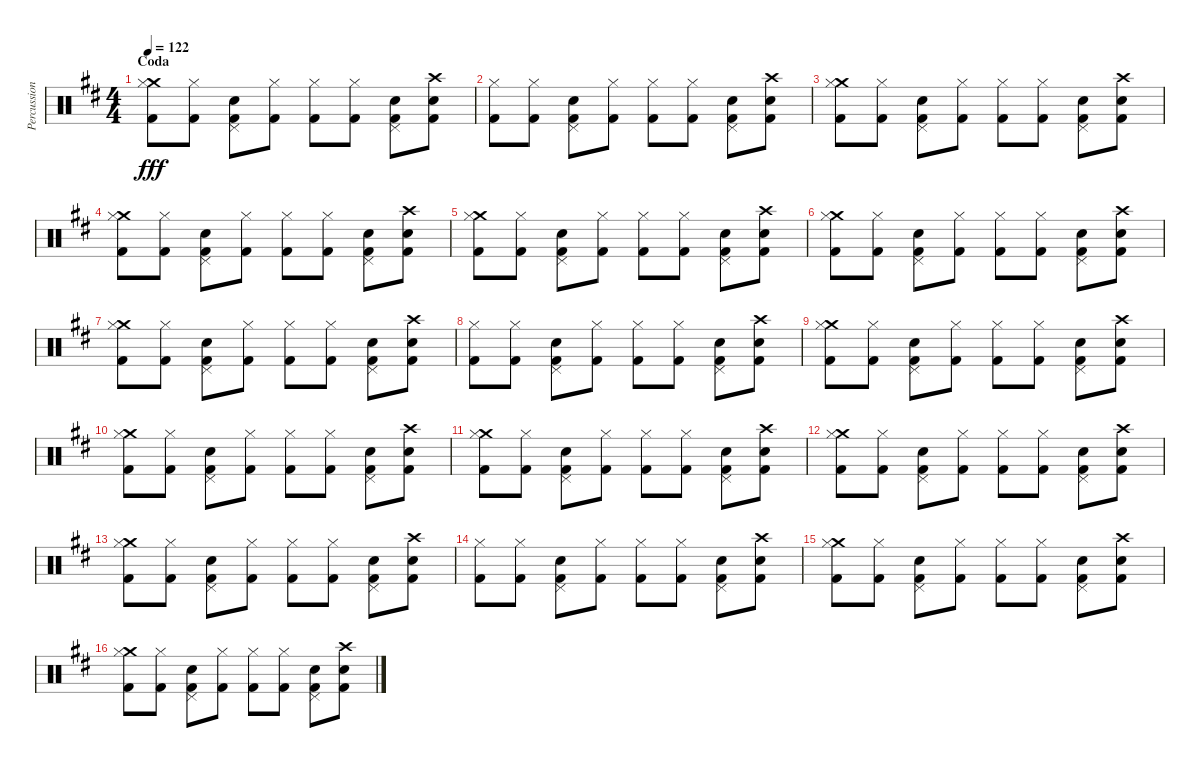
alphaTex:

\track ("Percussion: Boz Burrell" "Percussion") {instrument percussion}
\staff {score}
\articulation defaults
\ts (4 4)
\section ("" "Coda")
\tempo 122
\clef neutral
\ks d
("Crash medium (hit)" "Hi-Hat (closed)" "Kick (hit) 2").8{dy fff} ("Hi-Hat (closed)" "Kick (hit) 2").8 ("Pedal Hi-Hat (hit)" "Snare (hit) 2" "Kick (hit) 2").8 ("Hi-Hat (closed)" "Kick (hit) 2").8 ("Hi-Hat (closed)" "Kick (hit) 2").8 ("Hi-Hat (closed)" "Kick (hit) 2").8 ("Pedal Hi-Hat (hit)" "Snare (hit) 2" "Kick (hit) 2").8 ("Crash high (hit)" "Snare (hit) 2" "Kick (hit) 2").8 |
("Hi-Hat (closed)" "Kick (hit) 2").8 ("Hi-Hat (closed)" "Kick (hit) 2").8 ("Pedal Hi-Hat (hit)" "Snare (hit) 2" "Kick (hit) 2").8 ("Hi-Hat (closed)" "Kick (hit) 2").8 ("Hi-Hat (closed)" "Kick (hit) 2").8 ("Hi-Hat (closed)" "Kick (hit) 2").8 ("Pedal Hi-Hat (hit)" "Snare (hit) 2" "Kick (hit) 2").8 ("Crash high (hit)" "Snare (hit) 2" "Kick (hit) 2").8 |
("Crash medium (hit)" "Hi-Hat (closed)" "Kick (hit) 2").8 ("Hi-Hat (closed)" "Kick (hit) 2").8 ("Pedal Hi-Hat (hit)" "Snare (hit) 2" "Kick (hit) 2").8 ("Hi-Hat (closed)" "Kick (hit) 2").8 ("Hi-Hat (closed)" "Kick (hit) 2").8 ("Hi-Hat (closed)" "Kick (hit) 2").8 ("Pedal Hi-Hat (hit)" "Snare (hit) 2" "Kick (hit) 2").8 ("Crash high (hit)" "Snare (hit) 2" "Kick (hit) 2").8 |
("Crash medium (hit)" "Hi-Hat (closed)" "Kick (hit) 2").8 ("Hi-Hat (closed)" "Kick (hit) 2").8 ("Pedal Hi-Hat (hit)" "Snare (hit) 2" "Kick (hit) 2").8 ("Hi-Hat (closed)" "Kick (hit) 2").8 ("Hi-Hat (closed)" "Kick (hit) 2").8 ("Hi-Hat (closed)" "Kick (hit) 2").8 ("Pedal Hi-Hat (hit)" "Snare (hit) 2" "Kick (hit) 2").8 ("Crash high (hit)" "Snare (hit) 2" "Kick (hit) 2").8 |
("Crash medium (hit)" "Hi-Hat (closed)" "Kick (hit) 2").8 ("Hi-Hat (closed)" "Kick (hit) 2").8 ("Pedal Hi-Hat (hit)" "Snare (hit) 2" "Kick (hit) 2").8 ("Hi-Hat (closed)" "Kick (hit) 2").8 ("Hi-Hat (closed)" "Kick (hit) 2").8 ("Hi-Hat (closed)" "Kick (hit) 2").8 ("Pedal Hi-Hat (hit)" "Snare (hit) 2" "Kick (hit) 2").8 ("Crash high (hit)" "Snare (hit) 2" "Kick (hit) 2").8 |
("Crash medium (hit)" "Hi-Hat (closed)" "Kick (hit) 2").8 ("Hi-Hat (closed)" "Kick (hit) 2").8 ("Pedal Hi-Hat (hit)" "Snare (hit) 2" "Kick (hit) 2").8 ("Hi-Hat (closed)" "Kick (hit) 2").8 ("Hi-Hat (closed)" "Kick (hit) 2").8 ("Hi-Hat (closed)" "Kick (hit) 2").8 ("Pedal Hi-Hat (hit)" "Snare (hit) 2" "Kick (hit) 2").8 ("Crash high (hit)" "Snare (hit) 2" "Kick (hit) 2").8 |
("Crash medium (hit)" "Hi-Hat (closed)" "Kick (hit) 2").8 ("Hi-Hat (closed)" "Kick (hit) 2").8 ("Pedal Hi-Hat (hit)" "Snare (hit) 2" "Kick (hit) 2").8 ("Hi-Hat (closed)" "Kick (hit) 2").8 ("Hi-Hat (closed)" "Kick (hit) 2").8 ("Hi-Hat (closed)" "Kick (hit) 2").8 ("Pedal Hi-Hat (hit)" "Snare (hit) 2" "Kick (hit) 2").8 ("Crash high (hit)" "Snare (hit) 2" "Kick (hit) 2").8 |
("Hi-Hat (closed)" "Kick (hit) 2").8 ("Hi-Hat (closed)" "Kick (hit) 2").8 ("Pedal Hi-Hat (hit)" "Snare (hit) 2" "Kick (hit) 2").8 ("Hi-Hat (closed)" "Kick (hit) 2").8 ("Hi-Hat (closed)" "Kick (hit) 2").8 ("Hi-Hat (closed)" "Kick (hit) 2").8 ("Pedal Hi-Hat (hit)" "Snare (hit) 2" "Kick (hit) 2").8 ("Crash high (hit)" "Snare (hit) 2" "Kick (hit) 2").8 |
("Crash medium (hit)" "Hi-Hat (closed)" "Kick (hit) 2").8 ("Hi-Hat (closed)" "Kick (hit) 2").8 ("Pedal Hi-Hat (hit)" "Snare (hit) 2" "Kick (hit) 2").8 ("Hi-Hat (closed)" "Kick (hit) 2").8 ("Hi-Hat (closed)" "Kick (hit) 2").8 ("Hi-Hat (closed)" "Kick (hit) 2").8 ("Pedal Hi-Hat (hit)" "Snare (hit) 2" "Kick (hit) 2").8 ("Crash high (hit)" "Snare (hit) 2" "Kick (hit) 2").8 |
("Crash medium (hit)" "Hi-Hat (closed)" "Kick (hit) 2").8 ("Hi-Hat (closed)" "Kick (hit) 2").8 ("Pedal Hi-Hat (hit)" "Snare (hit) 2" "Kick (hit) 2").8 ("Hi-Hat (closed)" "Kick (hit) 2").8 ("Hi-Hat (closed)" "Kick (hit) 2").8 ("Hi-Hat (closed)" "Kick (hit) 2").8 ("Pedal Hi-Hat (hit)" "Snare (hit) 2" "Kick (hit) 2").8 ("Crash high (hit)" "Snare (hit) 2" "Kick (hit) 2").8 |
("Crash medium (hit)" "Hi-Hat (closed)" "Kick (hit) 2").8 ("Hi-Hat (closed)" "Kick (hit) 2").8 ("Pedal Hi-Hat (hit)" "Snare (hit) 2" "Kick (hit) 2").8 ("Hi-Hat (closed)" "Kick (hit) 2").8 ("Hi-Hat (closed)" "Kick (hit) 2").8 ("Hi-Hat (closed)" "Kick (hit) 2").8 ("Pedal Hi-Hat (hit)" "Snare (hit) 2" "Kick (hit) 2").8 ("Crash high (hit)" "Snare (hit) 2" "Kick (hit) 2").8 |
("Crash medium (hit)" "Hi-Hat (closed)" "Kick (hit) 2").8 ("Hi-Hat (closed)" "Kick (hit) 2").8 ("Pedal Hi-Hat (hit)" "Snare (hit) 2" "Kick (hit) 2").8 ("Hi-Hat (closed)" "Kick (hit) 2").8 ("Hi-Hat (closed)" "Kick (hit) 2").8 ("Hi-Hat (closed)" "Kick (hit) 2").8 ("Pedal Hi-Hat (hit)" "Snare (hit) 2" "Kick (hit) 2").8 ("Crash high (hit)" "Snare (hit) 2" "Kick (hit) 2").8 |
("Crash medium (hit)" "Hi-Hat (closed)" "Kick (hit) 2").8 ("Hi-Hat (closed)" "Kick (hit) 2").8 ("Pedal Hi-Hat (hit)" "Snare (hit) 2" "Kick (hit) 2").8 ("Hi-Hat (closed)" "Kick (hit) 2").8 ("Hi-Hat (closed)" "Kick (hit) 2").8 ("Hi-Hat (closed)" "Kick (hit) 2").8 ("Pedal Hi-Hat (hit)" "Snare (hit) 2" "Kick (hit) 2").8 ("Crash high (hit)" "Snare (hit) 2" "Kick (hit) 2").8 |
("Hi-Hat (closed)" "Kick (hit) 2").8 ("Hi-Hat (closed)" "Kick (hit) 2").8 ("Pedal Hi-Hat (hit)" "Snare (hit) 2" "Kick (hit) 2").8 ("Hi-Hat (closed)" "Kick (hit) 2").8 ("Hi-Hat (closed)" "Kick (hit) 2").8 ("Hi-Hat (closed)" "Kick (hit) 2").8 ("Pedal Hi-Hat (hit)" "Snare (hit) 2" "Kick (hit) 2").8 ("Crash high (hit)" "Snare (hit) 2" "Kick (hit) 2").8 |
("Crash medium (hit)" "Hi-Hat (closed)" "Kick (hit) 2").8 ("Hi-Hat (closed)" "Kick (hit) 2").8 ("Pedal Hi-Hat (hit)" "Snare (hit) 2" "Kick (hit) 2").8 ("Hi-Hat (closed)" "Kick (hit) 2").8 ("Hi-Hat (closed)" "Kick (hit) 2").8 ("Hi-Hat (closed)" "Kick (hit) 2").8 ("Pedal Hi-Hat (hit)" "Snare (hit) 2" "Kick (hit) 2").8 ("Crash high (hit)" "Snare (hit) 2" "Kick (hit) 2").8 |
("Crash medium (hit)" "Hi-Hat (closed)" "Kick (hit) 2").8 ("Hi-Hat (closed)" "Kick (hit) 2").8 ("Pedal Hi-Hat (hit)" "Snare (hit) 2" "Kick (hit) 2").8 ("Hi-Hat (closed)" "Kick (hit) 2").8 ("Hi-Hat (closed)" "Kick (hit) 2").8 ("Hi-Hat (closed)" "Kick (hit) 2").8 ("Pedal Hi-Hat (hit)" "Snare (hit) 2" "Kick (hit) 2").8 ("Crash high (hit)" "Snare (hit) 2" "Kick (hit) 2").8
